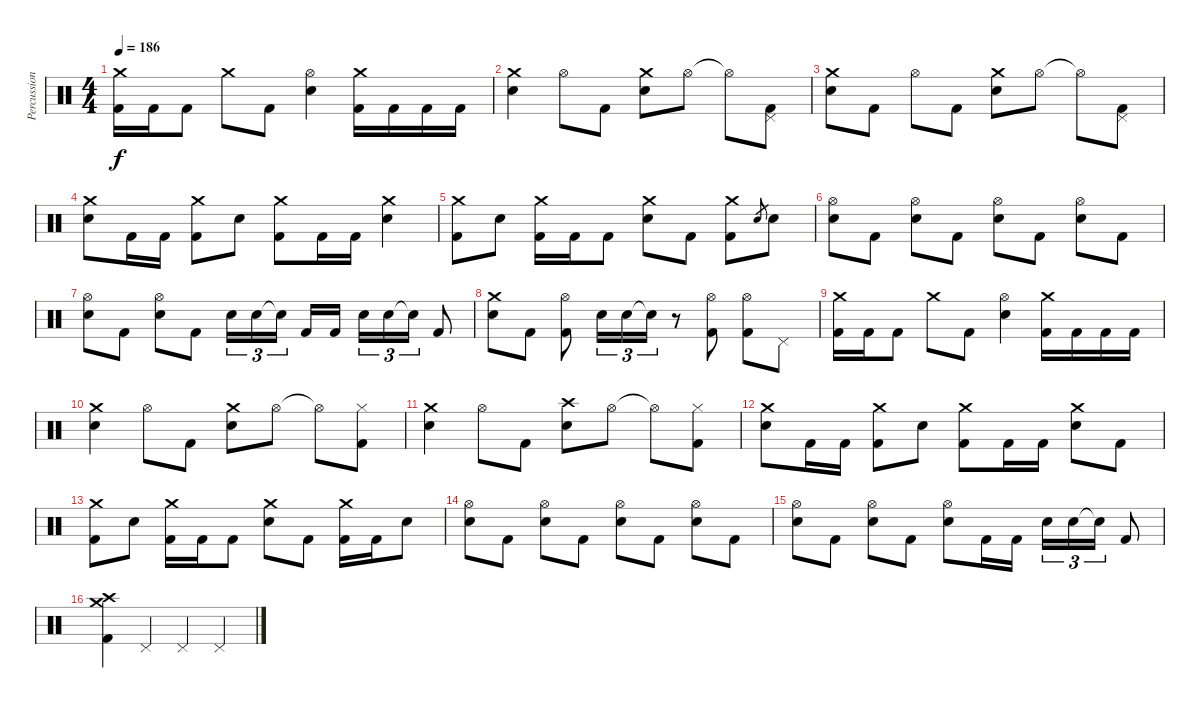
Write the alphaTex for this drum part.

\track ("Percussion" "Percussion") {instrument percussion}
\staff {score}
\articulation defaults
\ts (4 4)
\tempo 186
\clef neutral
\ks c
("Crash medium (hit)" "Kick (hit) 2").16{dy f} "Kick (hit) 2".16 "Kick (hit) 2".8 "Crash medium (hit)".8 "Kick (hit) 2".8 ("Hi-Hat (open)" "Electric Snare (hit)").4 ("Crash medium (hit)" "Kick (hit) 2").16 "Kick (hit) 2".16 "Kick (hit) 2".16 "Kick (hit) 2".16 |
("Crash medium (hit)" "Electric Snare (hit)").4 "Hi-Hat (open)".8 "Kick (hit) 2".8 ("Crash medium (hit)" "Electric Snare (hit)").8 "Hi-Hat (open)".8 "Hi-Hat (open)"{t}.8 ("Pedal Hi-Hat (hit)" "Kick (hit) 2").8 |
("Crash medium (hit)" "Electric Snare (hit)").8 "Kick (hit) 2".8 "Hi-Hat (open)".8 "Kick (hit) 2".8 ("Crash medium (hit)" "Electric Snare (hit)").8 "Hi-Hat (open)".8 "Hi-Hat (open)"{t}.8 ("Pedal Hi-Hat (hit)" "Kick (hit) 2").8 |
("Crash medium (hit)" "Electric Snare (hit)").8 "Kick (hit) 2".16 "Kick (hit) 2".16 ("Crash medium (hit)" "Kick (hit) 2").8 "Electric Snare (hit)".8 ("Crash medium (hit)" "Kick (hit) 2").8 "Kick (hit) 2".16 "Kick (hit) 2".16 ("Crash medium (hit)" "Electric Snare (hit)").4 |
("Crash medium (hit)" "Kick (hit) 2").8 "Electric Snare (hit)".8 ("Crash medium (hit)" "Kick (hit) 2").16 "Kick (hit) 2".16 "Kick (hit) 2".8 ("Crash medium (hit)" "Electric Snare (hit)").8 "Kick (hit) 2".8 ("Crash medium (hit)" "Kick (hit) 2").8 "Electric Snare (hit)".8{gr} "Electric Snare (hit)".8 |
("Hi-Hat (open)" "Electric Snare (hit)").8 "Kick (hit) 2".8 ("Hi-Hat (open)" "Electric Snare (hit)").8 "Kick (hit) 2".8 ("Hi-Hat (open)" "Electric Snare (hit)").8 "Kick (hit) 2".8 ("Hi-Hat (open)" "Electric Snare (hit)").8 "Kick (hit) 2".8 |
("Hi-Hat (open)" "Electric Snare (hit)").8 "Kick (hit) 2".8 ("Hi-Hat (open)" "Electric Snare (hit)").8 "Kick (hit) 2".8 "Electric Snare (hit)".16{tu (3 2)} "Electric Snare (hit)".16{tu (3 2)} "Electric Snare (hit)"{t}.16{tu (3 2) beam splitsecondary} "Kick (hit) 2".16 "Kick (hit) 2".16 "Electric Snare (hit)".16{tu (3 2)} "Electric Snare (hit)".16{tu (3 2)} "Electric Snare (hit)"{t}.16{tu (3 2)} "Kick (hit) 2".8 |
("Crash medium (hit)" "Electric Snare (hit)").8 "Kick (hit) 2".8 ("Hi-Hat (open)" "Kick (hit) 2").8 "Electric Snare (hit)".16{tu (3 2)} "Electric Snare (hit)".16{tu (3 2)} "Electric Snare (hit)"{t}.16{tu (3 2)} r.8 ("Hi-Hat (open)" "Kick (hit) 2").8 ("Hi-Hat (open)" "Kick (hit) 2").8 "Pedal Hi-Hat (hit)".8 |
("Crash medium (hit)" "Kick (hit) 2").16 "Kick (hit) 2".16 "Kick (hit) 2".8 "Crash medium (hit)".8 "Kick (hit) 2".8 ("Hi-Hat (open)" "Electric Snare (hit)").4 ("Crash medium (hit)" "Kick (hit) 2").16 "Kick (hit) 2".16 "Kick (hit) 2".16 "Kick (hit) 2".16 |
("Crash medium (hit)" "Electric Snare (hit)").4 "Hi-Hat (open)".8 "Kick (hit) 2".8 ("Crash medium (hit)" "Electric Snare (hit)").8 "Hi-Hat (open)".8 "Hi-Hat (open)"{t}.8 ("Hi-Hat (closed)" "Kick (hit) 2").8 |
("Crash medium (hit)" "Electric Snare (hit)").4 "Hi-Hat (open)".8 "Kick (hit) 2".8 ("Crash high (hit)" "Electric Snare (hit)").8 "Hi-Hat (open)".8 "Hi-Hat (open)"{t}.8 ("Hi-Hat (closed)" "Kick (hit) 2").8 |
("Crash medium (hit)" "Electric Snare (hit)").8 "Kick (hit) 2".16 "Kick (hit) 2".16 ("Crash medium (hit)" "Kick (hit) 2").8 "Electric Snare (hit)".8 ("Crash medium (hit)" "Kick (hit) 2").8 "Kick (hit) 2".16 "Kick (hit) 2".16 ("Crash medium (hit)" "Electric Snare (hit)").8 "Kick (hit) 2".8 |
("Crash medium (hit)" "Kick (hit) 2").8 "Electric Snare (hit)".8 ("Crash medium (hit)" "Kick (hit) 2").16 "Kick (hit) 2".16 "Kick (hit) 2".8 ("Crash medium (hit)" "Electric Snare (hit)").8 "Kick (hit) 2".8 ("Crash medium (hit)" "Kick (hit) 2").16 "Kick (hit) 2".16 "Electric Snare (hit)".8 |
("Hi-Hat (open)" "Electric Snare (hit)").8 "Kick (hit) 2".8 ("Hi-Hat (open)" "Electric Snare (hit)").8 "Kick (hit) 2".8 ("Hi-Hat (open)" "Electric Snare (hit)").8 "Kick (hit) 2".8 ("Hi-Hat (open)" "Electric Snare (hit)").8 "Kick (hit) 2".8 |
("Hi-Hat (open)" "Electric Snare (hit)").8 "Kick (hit) 2".8 ("Hi-Hat (open)" "Electric Snare (hit)").8 "Kick (hit) 2".8 ("Hi-Hat (open)" "Electric Snare (hit)").8 "Kick (hit) 2".16 "Kick (hit) 2".16 "Electric Snare (hit)".16{tu (3 2)} "Electric Snare (hit)".16{tu (3 2)} "Electric Snare (hit)"{t}.16{tu (3 2)} "Kick (hit) 2".8 |
("Crash medium (hit)" "Crash high (hit)" "Kick (hit) 2").4 "Pedal Hi-Hat (hit)".4 "Pedal Hi-Hat (hit)".4 "Pedal Hi-Hat (hit)".4
